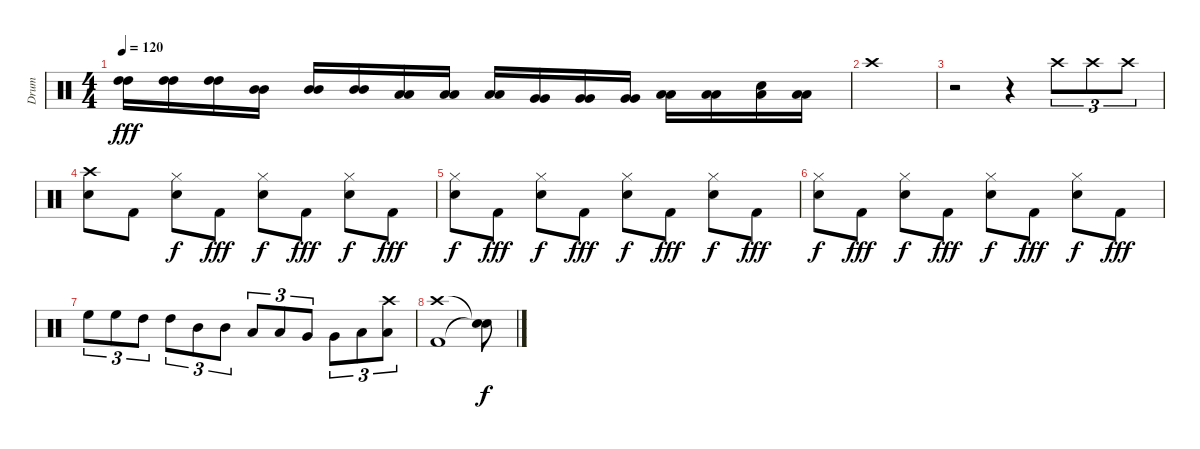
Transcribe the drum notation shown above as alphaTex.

\track ("Drum" "Drum") {instrument percussion}
\staff {score}
\articulation defaults
\ts (4 4)
\tempo 120
\clef neutral
\ks c
("High Tom (hit)" "High Tom (hit)").16{dy fff} ("High Tom (hit)" "High Tom (hit)").16 ("High Tom (hit)" "High Tom (hit)").16 ("Mid Tom (hit)" "Mid Tom (hit)").16 ("Mid Tom (hit)" "Mid Tom (hit)").16 ("Mid Tom (hit)" "Mid Tom (hit)").16 ("Low Tom (hit)" "Low Tom (hit)").16 ("Low Tom (hit)" "Low Tom (hit)").16 ("Low Tom (hit)" "Low Tom (hit)").16 ("Very Low Tom (hit)" "Very Low Tom (hit)").16 ("Very Low Tom (hit)" "Very Low Tom (hit)").16 ("Very Low Tom (hit)" "Very Low Tom (hit)").16 ("Low Floor Tom (hit)" "Low Floor Tom (hit)").16 ("Low Floor Tom (hit)" "Low Floor Tom (hit)").16 ("Low Floor Tom (hit)" "Snare (hit)").16 ("Low Floor Tom (hit)" "Low Floor Tom (hit)").16 |
"Crash high (hit)".1 |
r.2 r.4 "Crash high (hit)".8{tu (3 2)} "Crash high (hit)".8{tu (3 2)} "Crash high (hit)".8{tu (3 2)} |
("Crash high (hit)" "Electric Snare (hit)").8 "Kick (hit) 2".8 ("Hi-Hat (closed)" "Electric Snare (hit)").8{dy f} "Kick (hit) 2".8{dy fff} ("Hi-Hat (closed)" "Electric Snare (hit)").8{dy f} "Kick (hit) 2".8{dy fff} ("Hi-Hat (closed)" "Electric Snare (hit)").8{dy f} "Kick (hit) 2".8{dy fff} |
("Hi-Hat (closed)" "Electric Snare (hit)").8{dy f} "Kick (hit) 2".8{dy fff} ("Hi-Hat (closed)" "Electric Snare (hit)").8{dy f} "Kick (hit) 2".8{dy fff} ("Hi-Hat (closed)" "Electric Snare (hit)").8{dy f} "Kick (hit) 2".8{dy fff} ("Hi-Hat (closed)" "Electric Snare (hit)").8{dy f} "Kick (hit) 2".8{dy fff} |
("Hi-Hat (closed)" "Electric Snare (hit)").8{dy f} "Kick (hit) 2".8{dy fff} ("Hi-Hat (closed)" "Electric Snare (hit)").8{dy f} "Kick (hit) 2".8{dy fff} ("Hi-Hat (closed)" "Electric Snare (hit)").8{dy f} "Kick (hit) 2".8{dy fff} ("Hi-Hat (closed)" "Electric Snare (hit)").8{dy f} "Kick (hit) 2".8{dy fff} |
"High Floor Tom (hit)".8{tu (3 2)} "High Floor Tom (hit)".8{tu (3 2)} "High Tom (hit)".8{tu (3 2)} "High Tom (hit)".8{tu (3 2)} "Mid Tom (hit)".8{tu (3 2)} "Mid Tom (hit)".8{tu (3 2)} "Low Tom (hit)".8{tu (3 2)} "Low Tom (hit)".8{tu (3 2)} "Very Low Tom (hit)".8{tu (3 2)} "Very Low Tom (hit)".8{tu (3 2)} "Low Floor Tom (hit)".8{tu (3 2)} ("Crash high (hit)" "Low Floor Tom (hit)").8{tu (3 2)} |
("Crash high (hit)" "Kick (hit) 2").1 ("Snare (hit)"{t} "Snare (hit)"{t}).8{dy f}
